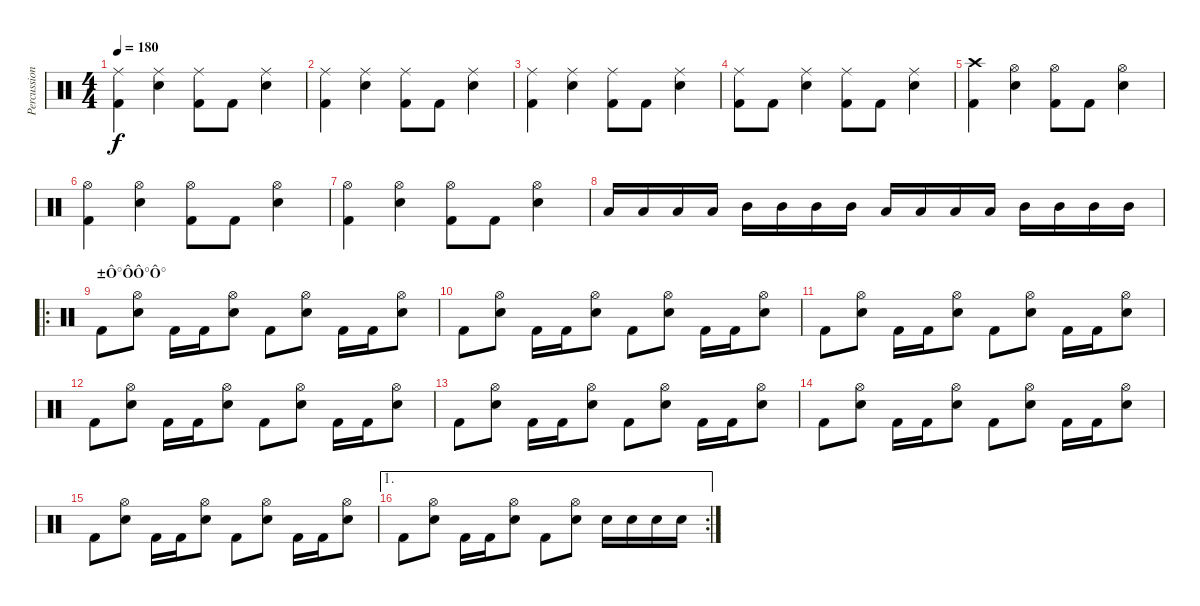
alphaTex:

\track ("Percussion" "Percussion") {instrument percussion}
\staff {score}
\articulation defaults
\ts (4 4)
\tempo 180
\clef neutral
\ks c
("Ride (middle)" "Kick (hit) 2").4{dy f} ("Ride (middle)" "Snare (hit) 2").4 ("Ride (middle)" "Kick (hit) 2").8 "Kick (hit) 2".8 ("Ride (middle)" "Snare (hit) 2").4 |
("Ride (middle)" "Kick (hit) 2").4 ("Ride (middle)" "Snare (hit) 2").4 ("Ride (middle)" "Kick (hit) 2").8 "Kick (hit) 2".8 ("Ride (middle)" "Snare (hit) 2").4 |
("Ride (middle)" "Kick (hit) 2").4 ("Ride (middle)" "Snare (hit) 2").4 ("Ride (middle)" "Kick (hit) 2").8 "Kick (hit) 2".8 ("Ride (middle)" "Snare (hit) 2").4 |
("Ride (middle)" "Kick (hit) 2").8 "Kick (hit) 2".8 ("Ride (middle)" "Snare (hit) 2").4 ("Ride (middle)" "Kick (hit) 2").8 "Kick (hit) 2".8 ("Ride (middle)" "Snare (hit) 2").4 |
("Crash high (hit)" "Kick (hit) 2").4 ("Hi-Hat (open)" "Snare (hit) 2").4 ("Hi-Hat (open)" "Kick (hit) 2").8 "Kick (hit) 2".8 ("Hi-Hat (open)" "Snare (hit) 2").4 |
("Hi-Hat (open)" "Kick (hit) 2").4 ("Hi-Hat (open)" "Snare (hit) 2").4 ("Hi-Hat (open)" "Kick (hit) 2").8 "Kick (hit) 2".8 ("Hi-Hat (open)" "Snare (hit) 2").4 |
("Hi-Hat (open)" "Kick (hit) 2").4 ("Hi-Hat (open)" "Snare (hit) 2").4 ("Hi-Hat (open)" "Kick (hit) 2").8 "Kick (hit) 2".8 ("Hi-Hat (open)" "Snare (hit) 2").4 |
"Low Tom (hit)".16 "Low Tom (hit)".16 "Low Tom (hit)".16 "Low Tom (hit)".16 "Mid Tom (hit)".16 "Mid Tom (hit)".16 "Mid Tom (hit)".16 "Mid Tom (hit)".16 "Low Tom (hit)".16 "Low Tom (hit)".16 "Low Tom (hit)".16 "Low Tom (hit)".16 "Mid Tom (hit)".16 "Mid Tom (hit)".16 "Mid Tom (hit)".16 "Mid Tom (hit)".16 |
\ro
\section ("" "±Ô°ÔÔ°Ô°")
"Kick (hit) 2".8 ("Hi-Hat (open)" "Snare (hit) 2").8 "Kick (hit) 2".16 "Kick (hit) 2".16 ("Hi-Hat (open)" "Snare (hit) 2").8 "Kick (hit) 2".8 ("Hi-Hat (open)" "Snare (hit) 2").8 "Kick (hit) 2".16 "Kick (hit) 2".16 ("Hi-Hat (open)" "Snare (hit) 2").8 |
"Kick (hit) 2".8 ("Hi-Hat (open)" "Snare (hit) 2").8 "Kick (hit) 2".16 "Kick (hit) 2".16 ("Hi-Hat (open)" "Snare (hit) 2").8 "Kick (hit) 2".8 ("Hi-Hat (open)" "Snare (hit) 2").8 "Kick (hit) 2".16 "Kick (hit) 2".16 ("Hi-Hat (open)" "Snare (hit) 2").8 |
"Kick (hit) 2".8 ("Hi-Hat (open)" "Snare (hit) 2").8 "Kick (hit) 2".16 "Kick (hit) 2".16 ("Hi-Hat (open)" "Snare (hit) 2").8 "Kick (hit) 2".8 ("Hi-Hat (open)" "Snare (hit) 2").8 "Kick (hit) 2".16 "Kick (hit) 2".16 ("Hi-Hat (open)" "Snare (hit) 2").8 |
"Kick (hit) 2".8 ("Hi-Hat (open)" "Snare (hit) 2").8 "Kick (hit) 2".16 "Kick (hit) 2".16 ("Hi-Hat (open)" "Snare (hit) 2").8 "Kick (hit) 2".8 ("Hi-Hat (open)" "Snare (hit) 2").8 "Kick (hit) 2".16 "Kick (hit) 2".16 ("Hi-Hat (open)" "Snare (hit) 2").8 |
"Kick (hit) 2".8 ("Hi-Hat (open)" "Snare (hit) 2").8 "Kick (hit) 2".16 "Kick (hit) 2".16 ("Hi-Hat (open)" "Snare (hit) 2").8 "Kick (hit) 2".8 ("Hi-Hat (open)" "Snare (hit) 2").8 "Kick (hit) 2".16 "Kick (hit) 2".16 ("Hi-Hat (open)" "Snare (hit) 2").8 |
"Kick (hit) 2".8 ("Hi-Hat (open)" "Snare (hit) 2").8 "Kick (hit) 2".16 "Kick (hit) 2".16 ("Hi-Hat (open)" "Snare (hit) 2").8 "Kick (hit) 2".8 ("Hi-Hat (open)" "Snare (hit) 2").8 "Kick (hit) 2".16 "Kick (hit) 2".16 ("Hi-Hat (open)" "Snare (hit) 2").8 |
"Kick (hit) 2".8 ("Hi-Hat (open)" "Snare (hit) 2").8 "Kick (hit) 2".16 "Kick (hit) 2".16 ("Hi-Hat (open)" "Snare (hit) 2").8 "Kick (hit) 2".8 ("Hi-Hat (open)" "Snare (hit) 2").8 "Kick (hit) 2".16 "Kick (hit) 2".16 ("Hi-Hat (open)" "Snare (hit) 2").8 |
\ae 1
\rc 2 "Kick (hit) 2".8
("Hi-Hat (open)" "Snare (hit) 2").8 "Kick (hit) 2".16 "Kick (hit) 2".16 ("Hi-Hat (open)" "Snare (hit) 2").8 "Kick (hit) 2".8 ("Hi-Hat (open)" "Snare (hit) 2").8 "Snare (hit) 2".16 "Snare (hit) 2".16 "Snare (hit) 2".16 "Snare (hit) 2".16
